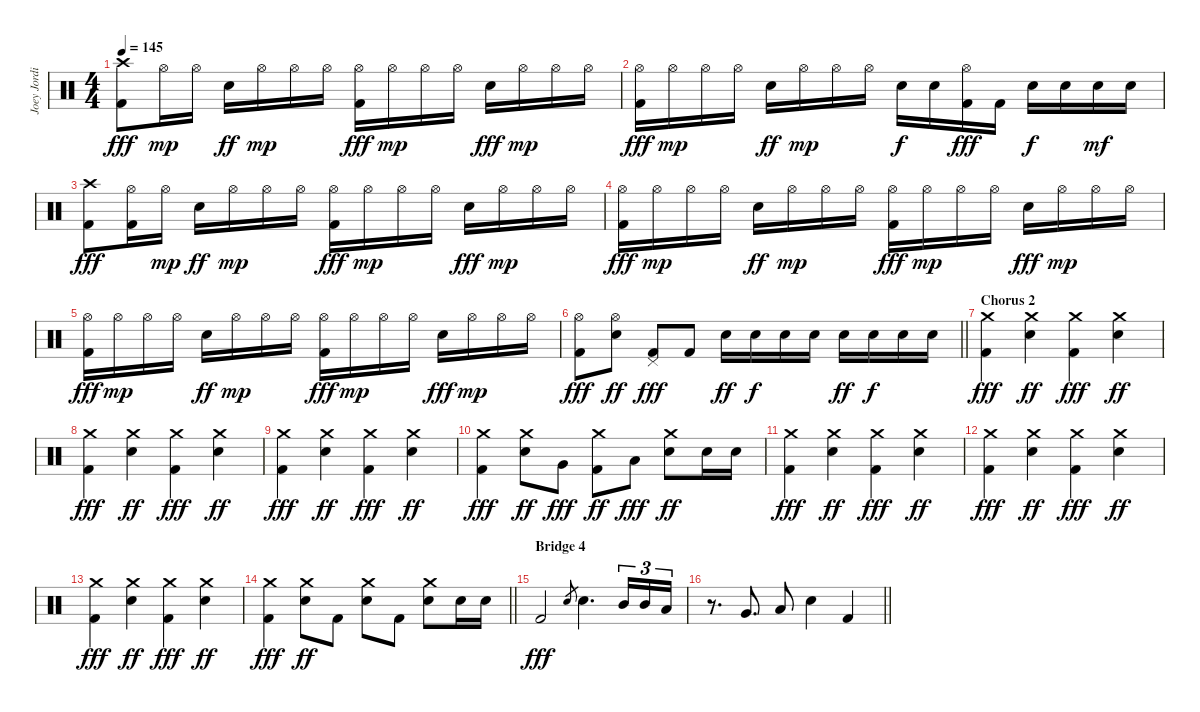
\track ("Joey Jordison" "Joey Jordi") {instrument percussion}
\staff {score}
\articulation defaults
\ts (4 4)
\tempo 145
\clef neutral
\ks c
("Crash high (hit)" "Kick (hit) 2").8{dy fff} "Hi-Hat (open)".16{dy mp} "Hi-Hat (open)".16 "Electric Snare (hit)".16{dy ff} "Hi-Hat (open)".16{dy mp} "Hi-Hat (open)".16 "Hi-Hat (open)".16 ("Hi-Hat (open)" "Kick (hit) 2").16{dy fff} "Hi-Hat (open)".16{dy mp} "Hi-Hat (open)".16 "Hi-Hat (open)".16 "Electric Snare (hit)".16{dy fff} "Hi-Hat (open)".16{dy mp} "Hi-Hat (open)".16 "Hi-Hat (open)".16 |
("Hi-Hat (open)" "Kick (hit) 2").16{dy fff} "Hi-Hat (open)".16{dy mp} "Hi-Hat (open)".16 "Hi-Hat (open)".16 "Electric Snare (hit)".16{dy ff} "Hi-Hat (open)".16{dy mp} "Hi-Hat (open)".16 "Hi-Hat (open)".16 "Electric Snare (hit)".16{dy f} "Electric Snare (hit)".16 ("Hi-Hat (open)" "Kick (hit) 2").16{dy fff} "Kick (hit) 2".16 "Electric Snare (hit)".16{dy f} "Electric Snare (hit)".16 "Electric Snare (hit)".16{dy mf} "Electric Snare (hit)".16 |
("Crash high (hit)" "Kick (hit) 2").8{dy fff} ("Hi-Hat (open)" "Kick (hit) 2").16 "Hi-Hat (open)".16{dy mp} "Electric Snare (hit)".16{dy ff} "Hi-Hat (open)".16{dy mp} "Hi-Hat (open)".16 "Hi-Hat (open)".16 ("Hi-Hat (open)" "Kick (hit) 2").16{dy fff} "Hi-Hat (open)".16{dy mp} "Hi-Hat (open)".16 "Hi-Hat (open)".16 "Electric Snare (hit)".16{dy fff} "Hi-Hat (open)".16{dy mp} "Hi-Hat (open)".16 "Hi-Hat (open)".16 |
("Hi-Hat (open)" "Kick (hit) 2").16{dy fff} "Hi-Hat (open)".16{dy mp} "Hi-Hat (open)".16 "Hi-Hat (open)".16 "Electric Snare (hit)".16{dy ff} "Hi-Hat (open)".16{dy mp} "Hi-Hat (open)".16 "Hi-Hat (open)".16 ("Hi-Hat (open)" "Kick (hit) 2").16{dy fff} "Hi-Hat (open)".16{dy mp} "Hi-Hat (open)".16 "Hi-Hat (open)".16 "Electric Snare (hit)".16{dy fff} "Hi-Hat (open)".16{dy mp} "Hi-Hat (open)".16 "Hi-Hat (open)".16 |
("Hi-Hat (open)" "Kick (hit) 2").16{dy fff} "Hi-Hat (open)".16{dy mp} "Hi-Hat (open)".16 "Hi-Hat (open)".16 "Electric Snare (hit)".16{dy ff} "Hi-Hat (open)".16{dy mp} "Hi-Hat (open)".16 "Hi-Hat (open)".16 ("Hi-Hat (open)" "Kick (hit) 2").16{dy fff} "Hi-Hat (open)".16{dy mp} "Hi-Hat (open)".16 "Hi-Hat (open)".16 "Electric Snare (hit)".16{dy fff} "Hi-Hat (open)".16{dy mp} "Hi-Hat (open)".16 "Hi-Hat (open)".16 |
\barLineRight lightlight
("Hi-Hat (open)" "Kick (hit) 2").8{dy fff} ("Hi-Hat (open)" "Electric Snare (hit)").8{dy ff} ("Pedal Hi-Hat (hit)" "Kick (hit) 2").8{dy fff} "Kick (hit) 2".8 "Electric Snare (hit)".16{dy ff} "Electric Snare (hit)".16{dy f} "Electric Snare (hit)".16 "Electric Snare (hit)".16 "Electric Snare (hit)".16{dy ff} "Electric Snare (hit)".16{dy f} "Electric Snare (hit)".16 "Electric Snare (hit)".16 |
\section ("" "Chorus 2")
("Crash medium (hit)" "Kick (hit) 2").4{dy fff} ("Crash medium (hit)" "Electric Snare (hit)").4{dy ff} ("Crash medium (hit)" "Kick (hit) 2").4{dy fff} ("Crash medium (hit)" "Electric Snare (hit)").4{dy ff} |
("Crash medium (hit)" "Kick (hit) 2").4{dy fff} ("Crash medium (hit)" "Electric Snare (hit)").4{dy ff} ("Crash medium (hit)" "Kick (hit) 2").4{dy fff} ("Crash medium (hit)" "Electric Snare (hit)").4{dy ff} |
("Crash medium (hit)" "Kick (hit) 2").4{dy fff} ("Crash medium (hit)" "Electric Snare (hit)").4{dy ff} ("Crash medium (hit)" "Kick (hit) 2").4{dy fff} ("Crash medium (hit)" "Electric Snare (hit)").4{dy ff} |
("Crash medium (hit)" "Kick (hit) 2").4{dy fff} ("Crash medium (hit)" "Electric Snare (hit)").8{dy ff} "Very Low Tom (hit)".8{dy fff} ("Crash medium (hit)" "Kick (hit) 2").8{dy ff} "Low Floor Tom (hit)".8{dy fff} ("Crash medium (hit)" "Electric Snare (hit)").8{dy ff} "Electric Snare (hit)".16 "Electric Snare (hit)".16 |
("Crash medium (hit)" "Kick (hit) 2").4{dy fff} ("Crash medium (hit)" "Electric Snare (hit)").4{dy ff} ("Crash medium (hit)" "Kick (hit) 2").4{dy fff} ("Crash medium (hit)" "Electric Snare (hit)").4{dy ff} |
("Crash medium (hit)" "Kick (hit) 2").4{dy fff} ("Crash medium (hit)" "Electric Snare (hit)").4{dy ff} ("Crash medium (hit)" "Kick (hit) 2").4{dy fff} ("Crash medium (hit)" "Electric Snare (hit)").4{dy ff} |
("Crash medium (hit)" "Kick (hit) 2").4{dy fff} ("Crash medium (hit)" "Electric Snare (hit)").4{dy ff} ("Crash medium (hit)" "Kick (hit) 2").4{dy fff} ("Crash medium (hit)" "Electric Snare (hit)").4{dy ff} |
\barLineRight lightlight
("Crash medium (hit)" "Kick (hit) 2").4{dy fff} ("Crash medium (hit)" "Electric Snare (hit)").8{dy ff} "Kick (hit) 2".8 ("Crash medium (hit)" "Electric Snare (hit)").8 "Kick (hit) 2".8 ("Crash medium (hit)" "Electric Snare (hit)").8 "Electric Snare (hit)".16 "Electric Snare (hit)".16 |
\section ("" "Bridge 4")
"Kick (hit) 2".2{dy fff} "Electric Snare (hit)".8{gr} "Electric Snare (hit)".4{d} "Mid Tom (hit)".16{tu (3 2)} "Mid Tom (hit)".16{tu (3 2)} "Low Tom (hit)".16{tu (3 2)} |
\barLineRight lightlight
r.8{d} "Very Low Tom (hit)".8{d} "Low Floor Tom (hit)".8 "Electric Snare (hit)".4 "Kick (hit) 2".4
